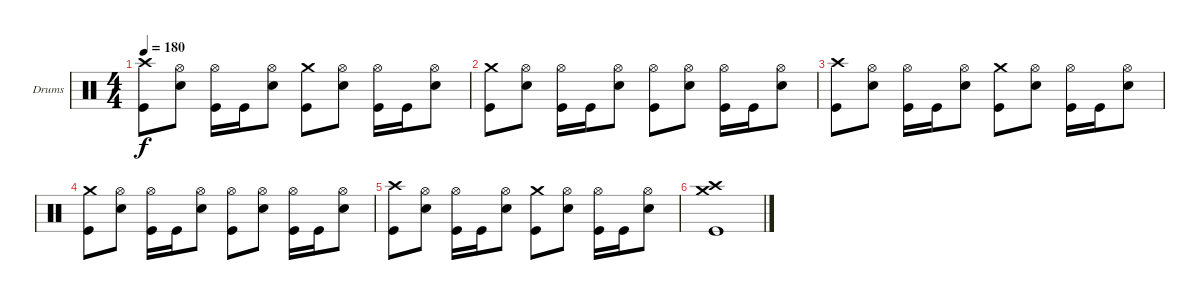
\bracketExtendMode groupsimilarinstruments
\firstSystemTrackNameOrientation horizontal
\otherSystemsTrackNameOrientation horizontal
\track ("Drumkit" "Drums") {instrument percussion}
\staff {score}
\articulation defaults
\ts (4 4)
\tempo 180
\clef neutral
\ks c
("Crash high (hit)" "Kick (hit)").8{dy f} ("Hi-Hat (open)" "Snare (hit) 2").8 ("Hi-Hat (open)" "Kick (hit)").16 "Kick (hit)".16 ("Hi-Hat (open)" "Snare (hit) 2").8 ("Crash medium (hit)" "Kick (hit)").8 ("Hi-Hat (open)" "Snare (hit) 2").8 ("Hi-Hat (open)" "Kick (hit)").16 "Kick (hit)".16 ("Hi-Hat (open)" "Snare (hit) 2").8 |
("Crash medium (hit)" "Kick (hit)").8 ("Hi-Hat (open)" "Snare (hit) 2").8 ("Hi-Hat (open)" "Kick (hit)").16 "Kick (hit)".16 ("Hi-Hat (open)" "Snare (hit) 2").8 ("Hi-Hat (open)" "Kick (hit)").8 ("Hi-Hat (open)" "Snare (hit) 2").8 ("Hi-Hat (open)" "Kick (hit)").16 "Kick (hit)".16 ("Hi-Hat (open)" "Snare (hit) 2").8 |
("Crash high (hit)" "Kick (hit)").8 ("Hi-Hat (open)" "Snare (hit) 2").8 ("Hi-Hat (open)" "Kick (hit)").16 "Kick (hit)".16 ("Hi-Hat (open)" "Snare (hit) 2").8 ("Crash medium (hit)" "Kick (hit)").8 ("Hi-Hat (open)" "Snare (hit) 2").8 ("Hi-Hat (open)" "Kick (hit)").16 "Kick (hit)".16 ("Hi-Hat (open)" "Snare (hit) 2").8 |
("Crash medium (hit)" "Kick (hit)").8 ("Hi-Hat (open)" "Snare (hit) 2").8 ("Hi-Hat (open)" "Kick (hit)").16 "Kick (hit)".16 ("Hi-Hat (open)" "Snare (hit) 2").8 ("Hi-Hat (open)" "Kick (hit)").8 ("Hi-Hat (open)" "Snare (hit) 2").8 ("Hi-Hat (open)" "Kick (hit)").16 "Kick (hit)".16 ("Hi-Hat (open)" "Snare (hit) 2").8 |
("Crash high (hit)" "Kick (hit)").8 ("Hi-Hat (open)" "Snare (hit) 2").8 ("Hi-Hat (open)" "Kick (hit)").16 "Kick (hit)".16 ("Hi-Hat (open)" "Snare (hit) 2").8 ("Crash medium (hit)" "Kick (hit)").8 ("Hi-Hat (open)" "Snare (hit) 2").8 ("Hi-Hat (open)" "Kick (hit)").16 "Kick (hit)".16 ("Hi-Hat (open)" "Snare (hit) 2").8 |
("Crash medium (hit)" "Crash high (hit)" "Kick (hit)").1
